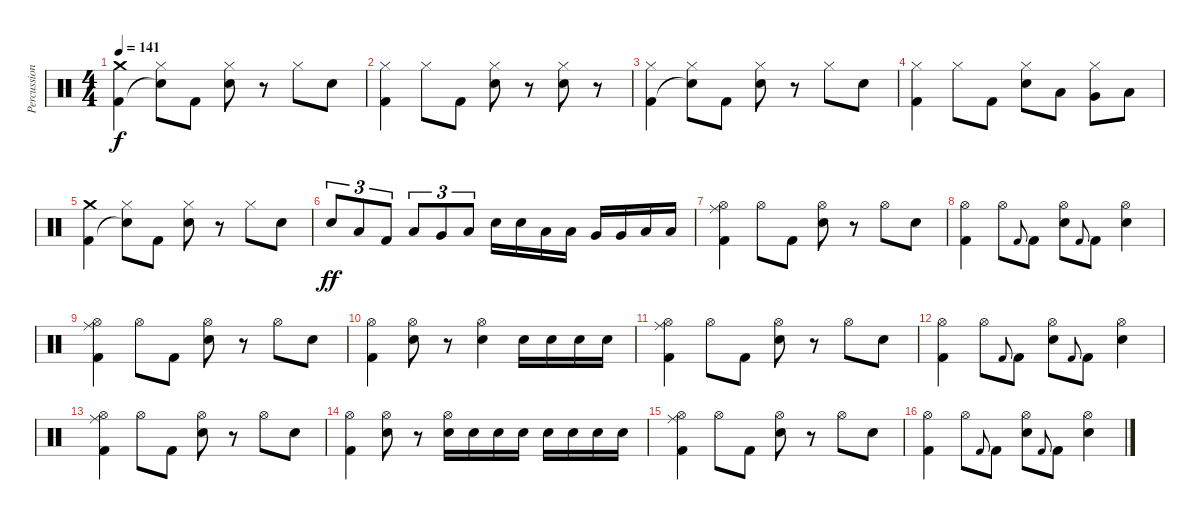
\track ("Percussion" "Percussion") {instrument percussion}
\staff {score}
\articulation defaults
\ts (4 4)
\tempo 141
\clef neutral
\ks c
("Crash medium (hit)" "Kick (hit) 2").4{dy f} ("Hi-Hat (closed)" "Snare (hit)"{t}).8 "Kick (hit) 2".8 ("Hi-Hat (closed)" "Electric Snare (hit)").8 r.8 "Hi-Hat (closed)".8 "Electric Snare (hit)".8 |
("Hi-Hat (closed)" "Kick (hit) 2").4 "Hi-Hat (closed)".8 "Kick (hit) 2".8 ("Hi-Hat (closed)" "Electric Snare (hit)").8 r.8 ("Hi-Hat (closed)" "Electric Snare (hit)").8 r.8 |
("Hi-Hat (closed)" "Kick (hit) 2").4 ("Hi-Hat (closed)" "Snare (hit)"{t}).8 "Kick (hit) 2".8 ("Hi-Hat (closed)" "Electric Snare (hit)").8 r.8 "Hi-Hat (closed)".8 "Electric Snare (hit)".8 |
("Hi-Hat (closed)" "Kick (hit) 2").4 "Hi-Hat (closed)".8 "Kick (hit) 2".8 ("Hi-Hat (closed)" "Electric Snare (hit)").8 "Low Tom (hit)".8 ("Hi-Hat (closed)" "Very Low Tom (hit)").8 "Low Floor Tom (hit)".8 |
("Crash medium (hit)" "Kick (hit) 2").4 ("Hi-Hat (closed)" "Snare (hit)"{t}).8 "Kick (hit) 2".8 ("Hi-Hat (closed)" "Electric Snare (hit)").8 r.8 "Hi-Hat (closed)".8 "Electric Snare (hit)".8 |
"Electric Snare (hit)".8{tu (3 2) dy ff} "Low Tom (hit)".8{tu (3 2)} "Kick (hit) 2".8{tu (3 2)} "Low Tom (hit)".8{tu (3 2)} "Very Low Tom (hit)".8{tu (3 2)} "Low Floor Tom (hit)".8{tu (3 2)} "Electric Snare (hit)".16 "Electric Snare (hit)".16 "Low Tom (hit)".16 "Low Tom (hit)".16 "Very Low Tom (hit)".16 "Very Low Tom (hit)".16 "Low Floor Tom (hit)".16 "Low Floor Tom (hit)".16 |
("Ride (middle)" "Hi-Hat (open)" "Kick (hit) 2").4 "Hi-Hat (open)".8 "Kick (hit) 2".8 ("Hi-Hat (open)" "Electric Snare (hit)").8 r.8 "Hi-Hat (open)".8 "Electric Snare (hit)".8 |
("Hi-Hat (open)" "Kick (hit) 2").4 "Hi-Hat (open)".8 "Kick (hit) 2".8{gr onbeat} "Kick (hit) 2".8 ("Hi-Hat (open)" "Electric Snare (hit)").8 "Kick (hit) 2".8{gr onbeat} "Kick (hit) 2".8 ("Hi-Hat (open)" "Electric Snare (hit)").4 |
("Ride (middle)" "Hi-Hat (open)" "Kick (hit) 2").4 "Hi-Hat (open)".8 "Kick (hit) 2".8 ("Hi-Hat (open)" "Electric Snare (hit)").8 r.8 "Hi-Hat (open)".8 "Electric Snare (hit)".8 |
("Hi-Hat (open)" "Kick (hit) 2").4 ("Hi-Hat (open)" "Electric Snare (hit)").8 r.8 ("Hi-Hat (open)" "Electric Snare (hit)").4 "Electric Snare (hit)".16 "Electric Snare (hit)".16 "Electric Snare (hit)".16 "Electric Snare (hit)".16 |
("Ride (middle)" "Hi-Hat (open)" "Kick (hit) 2").4 "Hi-Hat (open)".8 "Kick (hit) 2".8 ("Hi-Hat (open)" "Electric Snare (hit)").8 r.8 "Hi-Hat (open)".8 "Electric Snare (hit)".8 |
("Hi-Hat (open)" "Kick (hit) 2").4 "Hi-Hat (open)".8 "Kick (hit) 2".8{gr onbeat} "Kick (hit) 2".8 ("Hi-Hat (open)" "Electric Snare (hit)").8 "Kick (hit) 2".8{gr onbeat} "Kick (hit) 2".8 ("Hi-Hat (open)" "Electric Snare (hit)").4 |
("Ride (middle)" "Hi-Hat (open)" "Kick (hit) 2").4 "Hi-Hat (open)".8 "Kick (hit) 2".8 ("Hi-Hat (open)" "Electric Snare (hit)").8 r.8 "Hi-Hat (open)".8 "Electric Snare (hit)".8 |
("Hi-Hat (open)" "Kick (hit) 2").4 ("Hi-Hat (open)" "Electric Snare (hit)").8 r.8 ("Hi-Hat (open)" "Electric Snare (hit)").16 "Electric Snare (hit)".16 "Electric Snare (hit)".16 "Electric Snare (hit)".16 "Electric Snare (hit)".16 "Electric Snare (hit)".16 "Electric Snare (hit)".16 "Electric Snare (hit)".16 |
("Ride (middle)" "Hi-Hat (open)" "Kick (hit) 2").4 "Hi-Hat (open)".8 "Kick (hit) 2".8 ("Hi-Hat (open)" "Electric Snare (hit)").8 r.8 "Hi-Hat (open)".8 "Electric Snare (hit)".8 |
("Hi-Hat (open)" "Kick (hit) 2").4 "Hi-Hat (open)".8 "Kick (hit) 2".8{gr onbeat} "Kick (hit) 2".8 ("Hi-Hat (open)" "Electric Snare (hit)").8 "Kick (hit) 2".8{gr onbeat} "Kick (hit) 2".8 ("Hi-Hat (open)" "Electric Snare (hit)").4
